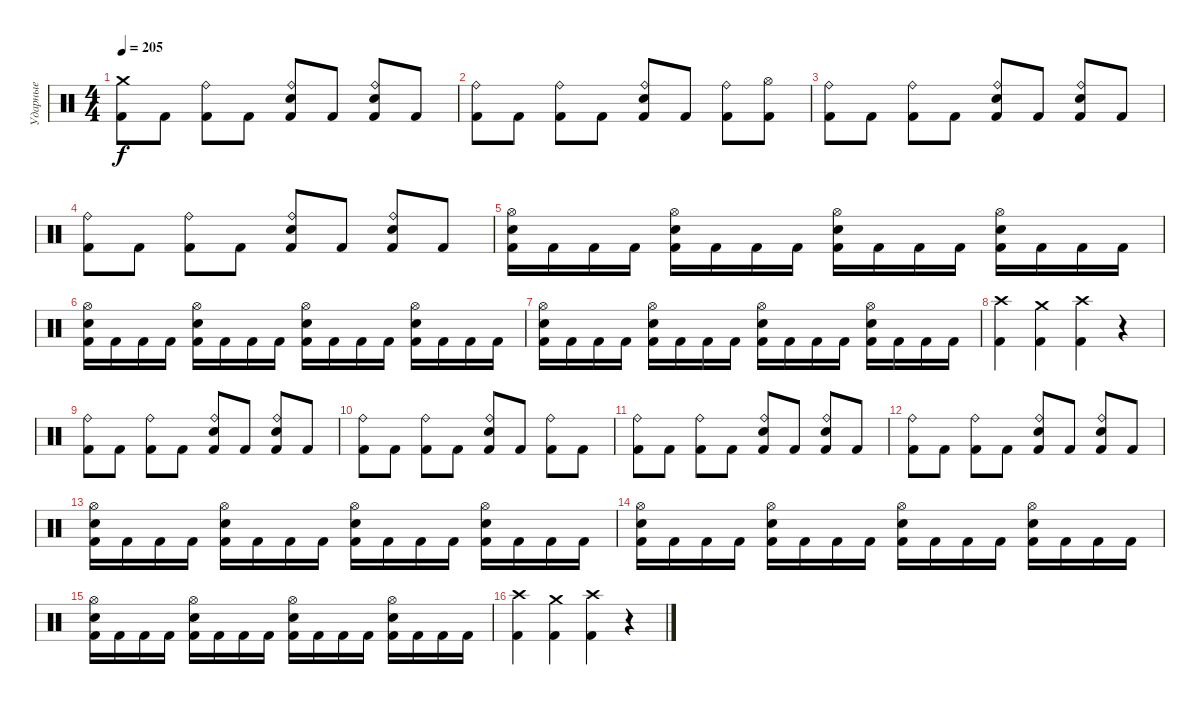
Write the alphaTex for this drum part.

\track ("Ударные" "Ударные") {instrument percussion}
\staff {score}
\articulation defaults
\ts (4 4)
\tempo 205
\clef neutral
\ks c
("Crash medium (hit)" "Kick (hit) 2").8{dy f} "Kick (hit) 2".8 ("Ride (bell)" "Kick (hit) 2").8 "Kick (hit) 2".8 ("Ride (bell)" "Electric Snare (hit)" "Kick (hit) 2").8 "Kick (hit) 2".8 ("Ride (bell)" "Electric Snare (hit)" "Kick (hit) 2").8 "Kick (hit) 2".8 |
("Ride (bell)" "Kick (hit) 2").8 "Kick (hit) 2".8 ("Ride (bell)" "Kick (hit) 2").8 "Kick (hit) 2".8 ("Ride (bell)" "Electric Snare (hit)" "Kick (hit) 2").8 "Kick (hit) 2".8 ("Ride (bell)" "Kick (hit) 2").8 ("Hi-Hat (open)" "Kick (hit) 2").8 |
("Ride (bell)" "Kick (hit) 2").8 "Kick (hit) 2".8 ("Ride (bell)" "Kick (hit) 2").8 "Kick (hit) 2".8 ("Ride (bell)" "Electric Snare (hit)" "Kick (hit) 2").8 "Kick (hit) 2".8 ("Ride (bell)" "Electric Snare (hit)" "Kick (hit) 2").8 "Kick (hit) 2".8 |
("Ride (bell)" "Kick (hit) 2").8 "Kick (hit) 2".8 ("Ride (bell)" "Kick (hit) 2").8 "Kick (hit) 2".8 ("Ride (bell)" "Electric Snare (hit)" "Kick (hit) 2").8 "Kick (hit) 2".8 ("Ride (bell)" "Electric Snare (hit)" "Kick (hit) 2").8 "Kick (hit) 2".8 |
("Hi-Hat (open)" "Electric Snare (hit)" "Kick (hit) 2").16 "Kick (hit) 2".16 "Kick (hit) 2".16 "Kick (hit) 2".16 ("Hi-Hat (open)" "Electric Snare (hit)" "Kick (hit) 2").16 "Kick (hit) 2".16 "Kick (hit) 2".16 "Kick (hit) 2".16 ("Hi-Hat (open)" "Electric Snare (hit)" "Kick (hit) 2").16 "Kick (hit) 2".16 "Kick (hit) 2".16 "Kick (hit) 2".16 ("Hi-Hat (open)" "Electric Snare (hit)" "Kick (hit) 2").16 "Kick (hit) 2".16 "Kick (hit) 2".16 "Kick (hit) 2".16 |
("Hi-Hat (open)" "Electric Snare (hit)" "Kick (hit) 2").16 "Kick (hit) 2".16 "Kick (hit) 2".16 "Kick (hit) 2".16 ("Hi-Hat (open)" "Electric Snare (hit)" "Kick (hit) 2").16 "Kick (hit) 2".16 "Kick (hit) 2".16 "Kick (hit) 2".16 ("Hi-Hat (open)" "Electric Snare (hit)" "Kick (hit) 2").16 "Kick (hit) 2".16 "Kick (hit) 2".16 "Kick (hit) 2".16 ("Hi-Hat (open)" "Electric Snare (hit)" "Kick (hit) 2").16 "Kick (hit) 2".16 "Kick (hit) 2".16 "Kick (hit) 2".16 |
("Hi-Hat (open)" "Electric Snare (hit)" "Kick (hit) 2").16 "Kick (hit) 2".16 "Kick (hit) 2".16 "Kick (hit) 2".16 ("Hi-Hat (open)" "Electric Snare (hit)" "Kick (hit) 2").16 "Kick (hit) 2".16 "Kick (hit) 2".16 "Kick (hit) 2".16 ("Hi-Hat (open)" "Electric Snare (hit)" "Kick (hit) 2").16 "Kick (hit) 2".16 "Kick (hit) 2".16 "Kick (hit) 2".16 ("Hi-Hat (open)" "Electric Snare (hit)" "Kick (hit) 2").16 "Kick (hit) 2".16 "Kick (hit) 2".16 "Kick (hit) 2".16 |
("Crash high (hit)" "Kick (hit) 2").4 ("Crash medium (hit)" "Kick (hit) 2").4 ("Crash high (hit)" "Kick (hit) 2").4 r.4 |
("Ride (bell)" "Kick (hit) 2").8 "Kick (hit) 2".8 ("Ride (bell)" "Kick (hit) 2").8 "Kick (hit) 2".8 ("Ride (bell)" "Electric Snare (hit)" "Kick (hit) 2").8 "Kick (hit) 2".8 ("Ride (bell)" "Electric Snare (hit)" "Kick (hit) 2").8 "Kick (hit) 2".8 |
("Ride (bell)" "Kick (hit) 2").8 "Kick (hit) 2".8 ("Ride (bell)" "Kick (hit) 2").8 "Kick (hit) 2".8 ("Ride (bell)" "Electric Snare (hit)" "Kick (hit) 2").8 "Kick (hit) 2".8 ("Ride (bell)" "Kick (hit) 2").8 "Kick (hit) 2".8 |
("Ride (bell)" "Kick (hit) 2").8 "Kick (hit) 2".8 ("Ride (bell)" "Kick (hit) 2").8 "Kick (hit) 2".8 ("Ride (bell)" "Electric Snare (hit)" "Kick (hit) 2").8 "Kick (hit) 2".8 ("Ride (bell)" "Electric Snare (hit)" "Kick (hit) 2").8 "Kick (hit) 2".8 |
("Ride (bell)" "Kick (hit) 2").8 "Kick (hit) 2".8 ("Ride (bell)" "Kick (hit) 2").8 "Kick (hit) 2".8 ("Ride (bell)" "Electric Snare (hit)" "Kick (hit) 2").8 "Kick (hit) 2".8 ("Ride (bell)" "Electric Snare (hit)" "Kick (hit) 2").8 "Kick (hit) 2".8 |
("Hi-Hat (open)" "Electric Snare (hit)" "Kick (hit) 2").16 "Kick (hit) 2".16 "Kick (hit) 2".16 "Kick (hit) 2".16 ("Hi-Hat (open)" "Electric Snare (hit)" "Kick (hit) 2").16 "Kick (hit) 2".16 "Kick (hit) 2".16 "Kick (hit) 2".16 ("Hi-Hat (open)" "Electric Snare (hit)" "Kick (hit) 2").16 "Kick (hit) 2".16 "Kick (hit) 2".16 "Kick (hit) 2".16 ("Hi-Hat (open)" "Electric Snare (hit)" "Kick (hit) 2").16 "Kick (hit) 2".16 "Kick (hit) 2".16 "Kick (hit) 2".16 |
("Hi-Hat (open)" "Electric Snare (hit)" "Kick (hit) 2").16 "Kick (hit) 2".16 "Kick (hit) 2".16 "Kick (hit) 2".16 ("Hi-Hat (open)" "Electric Snare (hit)" "Kick (hit) 2").16 "Kick (hit) 2".16 "Kick (hit) 2".16 "Kick (hit) 2".16 ("Hi-Hat (open)" "Electric Snare (hit)" "Kick (hit) 2").16 "Kick (hit) 2".16 "Kick (hit) 2".16 "Kick (hit) 2".16 ("Hi-Hat (open)" "Electric Snare (hit)" "Kick (hit) 2").16 "Kick (hit) 2".16 "Kick (hit) 2".16 "Kick (hit) 2".16 |
("Hi-Hat (open)" "Electric Snare (hit)" "Kick (hit) 2").16 "Kick (hit) 2".16 "Kick (hit) 2".16 "Kick (hit) 2".16 ("Hi-Hat (open)" "Electric Snare (hit)" "Kick (hit) 2").16 "Kick (hit) 2".16 "Kick (hit) 2".16 "Kick (hit) 2".16 ("Hi-Hat (open)" "Electric Snare (hit)" "Kick (hit) 2").16 "Kick (hit) 2".16 "Kick (hit) 2".16 "Kick (hit) 2".16 ("Hi-Hat (open)" "Electric Snare (hit)" "Kick (hit) 2").16 "Kick (hit) 2".16 "Kick (hit) 2".16 "Kick (hit) 2".16 |
("Crash high (hit)" "Kick (hit) 2").4 ("Crash medium (hit)" "Kick (hit) 2").4 ("Crash high (hit)" "Kick (hit) 2").4 r.4
